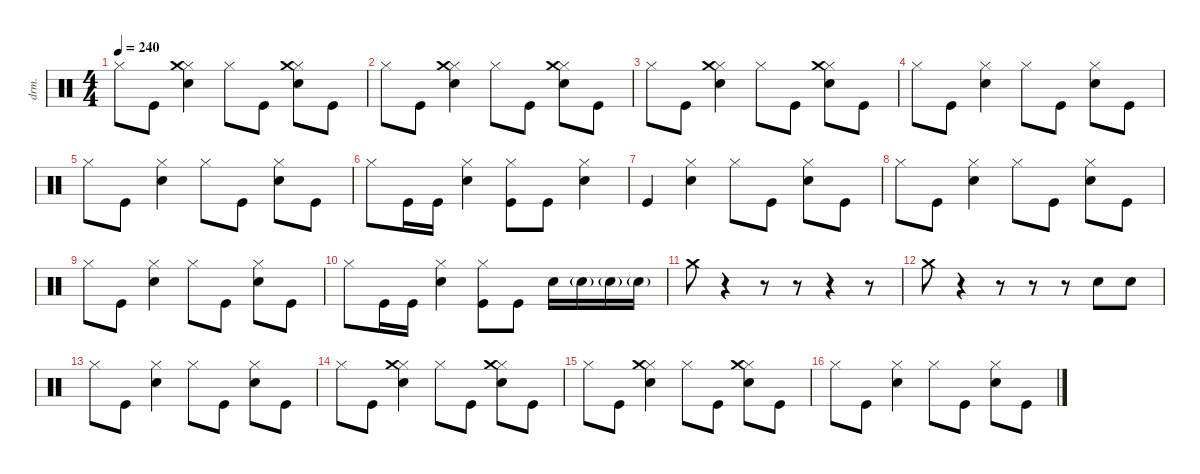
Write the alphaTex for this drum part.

\defaultSystemsLayout 4
\hideDynamics
\bracketExtendMode nobrackets
\track ("dany" "drm.") {instrument percussion}
\staff {score}
\articulation defaults
\ts (4 4)
\tempo 240
\clef neutral
\ks c "Hi-Hat (closed)".8{dy f beam Down} "Kick (hit)".8{beam Down}
("Snare (hit) 2" "Hi-Hat (closed)" "Crash medium (hit)").4{beam Down} "Hi-Hat (closed)".8{beam Down} "Kick (hit)".8{beam Down} ("Snare (hit) 2" "Hi-Hat (closed)" "Crash medium (hit)").8{beam Down} "Kick (hit)".8{beam Down} |
"Hi-Hat (closed)".8{beam Down} "Kick (hit)".8{beam Down} ("Snare (hit) 2" "Hi-Hat (closed)" "Crash medium (hit)").4{beam Down} "Hi-Hat (closed)".8{beam Down} "Kick (hit)".8{beam Down} ("Snare (hit) 2" "Hi-Hat (closed)" "Crash medium (hit)").8{beam Down} "Kick (hit)".8{beam Down} |
"Hi-Hat (closed)".8{beam Down} "Kick (hit)".8{beam Down} ("Snare (hit) 2" "Hi-Hat (closed)" "Crash medium (hit)").4{beam Down} "Hi-Hat (closed)".8{beam Down} "Kick (hit)".8{beam Down} ("Snare (hit) 2" "Hi-Hat (closed)" "Crash medium (hit)").8{beam Down} "Kick (hit)".8{beam Down} |
"Hi-Hat (closed)".8{beam Down} "Kick (hit)".8{beam Down} ("Snare (hit) 2" "Hi-Hat (closed)").4{beam Down} "Hi-Hat (closed)".8{beam Down} "Kick (hit)".8{beam Down} ("Snare (hit) 2" "Hi-Hat (closed)").8{beam Down} "Kick (hit)".8{beam Down} |
"Hi-Hat (closed)".8{beam Down} "Kick (hit)".8{beam Down} ("Snare (hit) 2" "Hi-Hat (closed)").4{beam Down} "Hi-Hat (closed)".8{beam Down} "Kick (hit)".8{beam Down} ("Snare (hit) 2" "Hi-Hat (closed)").8{beam Down} "Kick (hit)".8{beam Down} |
"Hi-Hat (closed)".8{beam Down} "Kick (hit)".16{beam Down} "Kick (hit)".16{beam Down} ("Snare (hit) 2" "Hi-Hat (closed)").4{beam Down} ("Kick (hit)" "Hi-Hat (closed)").8{beam Down} "Kick (hit)".8{beam Down} ("Snare (hit) 2" "Hi-Hat (closed)").4{beam Down} |
"Kick (hit)".4{beam Up} ("Snare (hit) 2" "Hi-Hat (closed)").4{beam Down} "Hi-Hat (closed)".8{beam Down} "Kick (hit)".8{beam Down} ("Snare (hit) 2" "Hi-Hat (closed)").8{beam Down} "Kick (hit)".8{beam Down} |
"Hi-Hat (closed)".8{beam Down} "Kick (hit)".8{beam Down} ("Snare (hit) 2" "Hi-Hat (closed)").4{beam Down} "Hi-Hat (closed)".8{beam Down} "Kick (hit)".8{beam Down} ("Snare (hit) 2" "Hi-Hat (closed)").8{beam Down} "Kick (hit)".8{beam Down} |
"Hi-Hat (closed)".8{beam Down} "Kick (hit)".8{beam Down} ("Snare (hit) 2" "Hi-Hat (closed)").4{beam Down} "Hi-Hat (closed)".8{beam Down} "Kick (hit)".8{beam Down} ("Snare (hit) 2" "Hi-Hat (closed)").8{beam Down} "Kick (hit)".8{beam Down} |
"Hi-Hat (closed)".8{beam Down} "Kick (hit)".16{beam Down} "Kick (hit)".16{beam Down} ("Snare (hit) 2" "Hi-Hat (closed)").4{beam Down} ("Kick (hit)" "Hi-Hat (closed)").8{beam Down} "Kick (hit)".8{beam Down} "Snare (hit) 2".16{dy mf beam Down} "Snare (hit) 2"{g}.16{dy f beam Down} "Snare (hit) 2"{g}.16{beam Down} "Snare (hit) 2"{g}.16{beam Down} |
"Crash medium (hit)".8{beam Down} r.4{beam Down} r.8{beam Down} r.8{beam Down} r.4{beam Down} r.8{beam Down} |
"Crash medium (hit)".8{beam Down} r.4{beam Down} r.8{beam Down} r.8{beam Down} r.8{beam Down} "Snare (hit) 2".8{beam Down} "Snare (hit) 2".8{beam Down} |
"Hi-Hat (closed)".8{beam Down} "Kick (hit)".8{beam Down} ("Snare (hit) 2" "Hi-Hat (closed)").4{beam Down} "Hi-Hat (closed)".8{beam Down} "Kick (hit)".8{beam Down} ("Snare (hit) 2" "Hi-Hat (closed)").8{beam Down} "Kick (hit)".8{beam Down} |
"Hi-Hat (closed)".8{beam Down} "Kick (hit)".8{beam Down} ("Snare (hit) 2" "Hi-Hat (closed)" "Crash medium (hit)").4{beam Down} "Hi-Hat (closed)".8{beam Down} "Kick (hit)".8{beam Down} ("Snare (hit) 2" "Hi-Hat (closed)" "Crash medium (hit)").8{beam Down} "Kick (hit)".8{beam Down} |
"Hi-Hat (closed)".8{beam Down} "Kick (hit)".8{beam Down} ("Snare (hit) 2" "Hi-Hat (closed)" "Crash medium (hit)").4{beam Down} "Hi-Hat (closed)".8{beam Down} "Kick (hit)".8{beam Down} ("Snare (hit) 2" "Hi-Hat (closed)" "Crash medium (hit)").8{beam Down} "Kick (hit)".8{beam Down} |
"Hi-Hat (closed)".8{beam Down} "Kick (hit)".8{beam Down} ("Snare (hit) 2" "Hi-Hat (closed)").4{beam Down} "Hi-Hat (closed)".8{beam Down} "Kick (hit)".8{beam Down} ("Snare (hit) 2" "Hi-Hat (closed)").8{beam Down} "Kick (hit)".8{beam Down}
